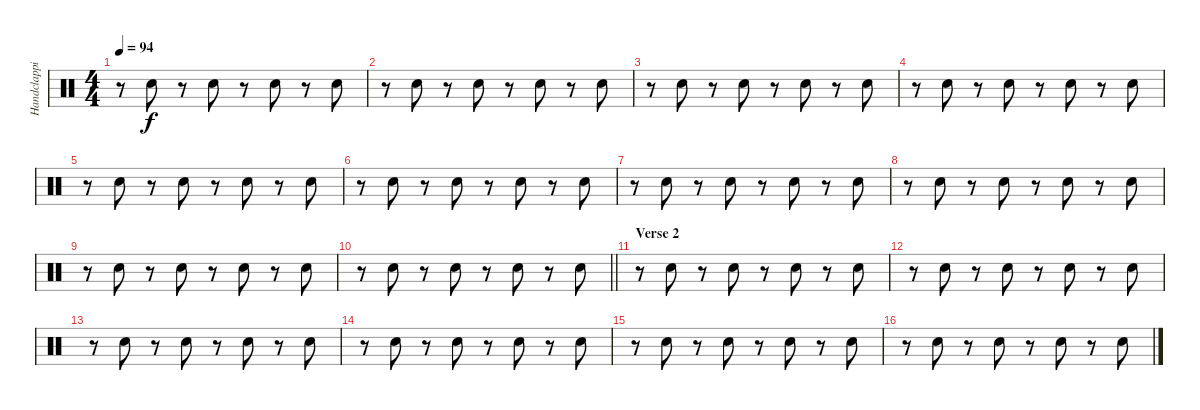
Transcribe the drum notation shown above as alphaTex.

\track ("Handclapping" "Handclappi") {instrument percussion}
\staff {score}
\articulation defaults
\ts (4 4)
\tempo 94
\clef neutral
\ks c
r.8{dy f} "Hand Clap (hit)".8 r.8 "Hand Clap (hit)".8 r.8 "Hand Clap (hit)".8 r.8 "Hand Clap (hit)".8 |
r.8 "Hand Clap (hit)".8 r.8 "Hand Clap (hit)".8 r.8 "Hand Clap (hit)".8 r.8 "Hand Clap (hit)".8 |
r.8 "Hand Clap (hit)".8 r.8 "Hand Clap (hit)".8 r.8 "Hand Clap (hit)".8 r.8 "Hand Clap (hit)".8 |
r.8 "Hand Clap (hit)".8 r.8 "Hand Clap (hit)".8 r.8 "Hand Clap (hit)".8 r.8 "Hand Clap (hit)".8 |
r.8 "Hand Clap (hit)".8 r.8 "Hand Clap (hit)".8 r.8 "Hand Clap (hit)".8 r.8 "Hand Clap (hit)".8 |
r.8 "Hand Clap (hit)".8 r.8 "Hand Clap (hit)".8 r.8 "Hand Clap (hit)".8 r.8 "Hand Clap (hit)".8 |
r.8 "Hand Clap (hit)".8 r.8 "Hand Clap (hit)".8 r.8 "Hand Clap (hit)".8 r.8 "Hand Clap (hit)".8 |
r.8 "Hand Clap (hit)".8 r.8 "Hand Clap (hit)".8 r.8 "Hand Clap (hit)".8 r.8 "Hand Clap (hit)".8 |
r.8 "Hand Clap (hit)".8 r.8 "Hand Clap (hit)".8 r.8 "Hand Clap (hit)".8 r.8 "Hand Clap (hit)".8 |
\barLineRight lightlight
r.8 "Hand Clap (hit)".8 r.8 "Hand Clap (hit)".8 r.8 "Hand Clap (hit)".8 r.8 "Hand Clap (hit)".8 |
\section ("" "Verse 2")
r.8 "Hand Clap (hit)".8 r.8 "Hand Clap (hit)".8 r.8 "Hand Clap (hit)".8 r.8 "Hand Clap (hit)".8 |
r.8 "Hand Clap (hit)".8 r.8 "Hand Clap (hit)".8 r.8 "Hand Clap (hit)".8 r.8 "Hand Clap (hit)".8 |
r.8 "Hand Clap (hit)".8 r.8 "Hand Clap (hit)".8 r.8 "Hand Clap (hit)".8 r.8 "Hand Clap (hit)".8 |
r.8 "Hand Clap (hit)".8 r.8 "Hand Clap (hit)".8 r.8 "Hand Clap (hit)".8 r.8 "Hand Clap (hit)".8 |
r.8 "Hand Clap (hit)".8 r.8 "Hand Clap (hit)".8 r.8 "Hand Clap (hit)".8 r.8 "Hand Clap (hit)".8 |
r.8 "Hand Clap (hit)".8 r.8 "Hand Clap (hit)".8 r.8 "Hand Clap (hit)".8 r.8 "Hand Clap (hit)".8
